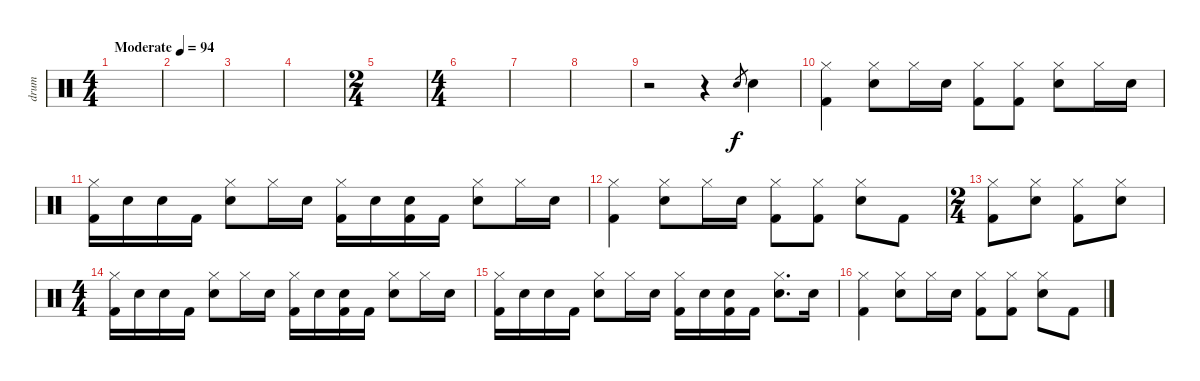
\track ("drum" "drum") {instrument percussion}
\staff {score}
\articulation defaults
\ts (4 4)
\tempo (94 "Moderate")
\clef neutral
\ks c
|
|
|
|
\ts (2 4)
|
\ts (4 4)
|
|
|
r.2 r.4 "Electric Snare (hit)".8{gr} "Electric Snare (hit)".4 |
("Hi-Hat (closed)" "Kick (hit) 2").4 ("Hi-Hat (closed)" "Electric Snare (hit)").8 "Hi-Hat (closed)".16 "Electric Snare (hit)".16 ("Hi-Hat (closed)" "Kick (hit) 2").8 ("Hi-Hat (closed)" "Kick (hit) 2").8 ("Electric Snare (hit)" "Hi-Hat (closed)").8 "Hi-Hat (closed)".16 "Electric Snare (hit)".16 |
("Hi-Hat (closed)" "Kick (hit) 2").16 "Electric Snare (hit)".16 "Electric Snare (hit)".16 "Kick (hit) 2".16 ("Hi-Hat (closed)" "Electric Snare (hit)").8 "Hi-Hat (closed)".16 "Electric Snare (hit)".16 ("Hi-Hat (closed)" "Kick (hit) 2").16 "Electric Snare (hit)".16 ("Electric Snare (hit)" "Kick (hit) 2").16 "Kick (hit) 2".16 ("Hi-Hat (closed)" "Electric Snare (hit)").8 "Hi-Hat (closed)".16 "Electric Snare (hit)".16 |
("Hi-Hat (closed)" "Kick (hit) 2").4 ("Hi-Hat (closed)" "Electric Snare (hit)").8 "Hi-Hat (closed)".16 "Electric Snare (hit)".16 ("Hi-Hat (closed)" "Kick (hit) 2").8 ("Hi-Hat (closed)" "Kick (hit) 2").8 ("Electric Snare (hit)" "Hi-Hat (closed)").8 "Kick (hit) 2".8 |
\ts (2 4)
("Hi-Hat (closed)" "Kick (hit) 2").8 ("Hi-Hat (closed)" "Electric Snare (hit)").8 ("Hi-Hat (closed)" "Kick (hit) 2").8 ("Hi-Hat (closed)" "Electric Snare (hit)").8 |
\ts (4 4)
("Hi-Hat (closed)" "Kick (hit) 2").16 "Electric Snare (hit)".16 "Electric Snare (hit)".16 "Kick (hit) 2".16 ("Hi-Hat (closed)" "Electric Snare (hit)").8 "Hi-Hat (closed)".16 "Electric Snare (hit)".16 ("Hi-Hat (closed)" "Kick (hit) 2").16 "Electric Snare (hit)".16 ("Electric Snare (hit)" "Kick (hit) 2").16 "Kick (hit) 2".16 ("Hi-Hat (closed)" "Electric Snare (hit)").8 "Hi-Hat (closed)".16 "Electric Snare (hit)".16 |
("Hi-Hat (closed)" "Kick (hit) 2").16 "Electric Snare (hit)".16 "Electric Snare (hit)".16 "Kick (hit) 2".16 ("Hi-Hat (closed)" "Electric Snare (hit)").8 "Hi-Hat (closed)".16 "Electric Snare (hit)".16 ("Hi-Hat (closed)" "Kick (hit) 2").16 "Electric Snare (hit)".16 ("Electric Snare (hit)" "Kick (hit) 2").16 "Kick (hit) 2".16 ("Hi-Hat (closed)" "Electric Snare (hit)").8{d} "Electric Snare (hit)".16 |
("Hi-Hat (closed)" "Kick (hit) 2").4 ("Hi-Hat (closed)" "Electric Snare (hit)").8 "Hi-Hat (closed)".16 "Electric Snare (hit)".16 ("Hi-Hat (closed)" "Kick (hit) 2").8 ("Hi-Hat (closed)" "Kick (hit) 2").8 ("Electric Snare (hit)" "Hi-Hat (closed)").8 "Kick (hit) 2".8
